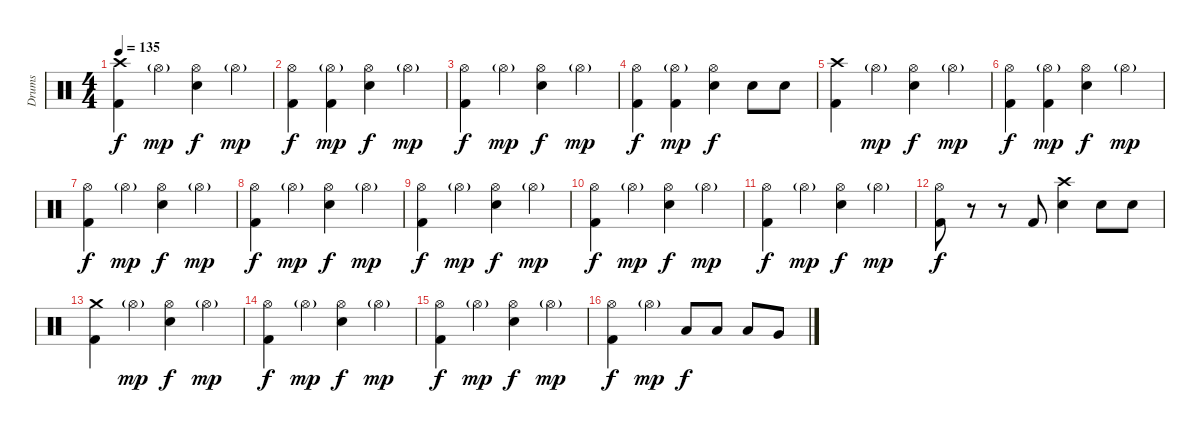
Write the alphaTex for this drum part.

\track ("Drums" "Drums") {instrument percussion}
\staff {score}
\articulation defaults
\ts (4 4)
\tempo 135
\clef neutral
\ks c
("Crash high (hit)" "Kick (hit) 2").4{dy f} "Hi-Hat (open)"{g}.4{dy mp} ("Hi-Hat (open)" "Snare (hit) 2").4{dy f} "Hi-Hat (open)"{g}.4{dy mp} |
("Hi-Hat (open)" "Kick (hit) 2").4{dy f} ("Hi-Hat (open)"{g} "Kick (hit) 2").4{dy mp} ("Hi-Hat (open)" "Snare (hit) 2").4{dy f} "Hi-Hat (open)"{g}.4{dy mp} |
("Hi-Hat (open)" "Kick (hit) 2").4{dy f} "Hi-Hat (open)"{g}.4{dy mp} ("Hi-Hat (open)" "Snare (hit) 2").4{dy f} "Hi-Hat (open)"{g}.4{dy mp} |
("Hi-Hat (open)" "Kick (hit) 2").4{dy f} ("Hi-Hat (open)"{g} "Kick (hit) 2").4{dy mp} ("Hi-Hat (open)" "Snare (hit) 2").4{dy f} "Snare (hit) 2".8 "Snare (hit) 2".8 |
("Crash high (hit)" "Kick (hit) 2").4 "Hi-Hat (open)"{g}.4{dy mp} ("Hi-Hat (open)" "Snare (hit) 2").4{dy f} "Hi-Hat (open)"{g}.4{dy mp} |
("Hi-Hat (open)" "Kick (hit) 2").4{dy f} ("Hi-Hat (open)"{g} "Kick (hit) 2").4{dy mp} ("Hi-Hat (open)" "Snare (hit) 2").4{dy f} "Hi-Hat (open)"{g}.4{dy mp} |
("Hi-Hat (open)" "Kick (hit) 2").4{dy f} "Hi-Hat (open)"{g}.4{dy mp} ("Hi-Hat (open)" "Snare (hit) 2").4{dy f} "Hi-Hat (open)"{g}.4{dy mp} |
("Hi-Hat (open)" "Kick (hit) 2").4{dy f} "Hi-Hat (open)"{g}.4{dy mp} ("Hi-Hat (open)" "Snare (hit) 2").4{dy f} "Hi-Hat (open)"{g}.4{dy mp} |
("Hi-Hat (open)" "Kick (hit) 2").4{dy f} "Hi-Hat (open)"{g}.4{dy mp} ("Hi-Hat (open)" "Snare (hit) 2").4{dy f} "Hi-Hat (open)"{g}.4{dy mp} |
("Hi-Hat (open)" "Kick (hit) 2").4{dy f} "Hi-Hat (open)"{g}.4{dy mp} ("Hi-Hat (open)" "Snare (hit) 2").4{dy f} "Hi-Hat (open)"{g}.4{dy mp} |
("Hi-Hat (open)" "Kick (hit) 2").4{dy f} "Hi-Hat (open)"{g}.4{dy mp} ("Hi-Hat (open)" "Snare (hit) 2").4{dy f} "Hi-Hat (open)"{g}.4{dy mp} |
("Hi-Hat (open)" "Kick (hit) 2").8{dy f} r.8 r.8 "Kick (hit) 2".8 ("Crash high (hit)" "Snare (hit) 2").4 "Snare (hit) 2".8 "Snare (hit) 2".8 |
("Crash medium (hit)" "Kick (hit) 2").4 "Hi-Hat (open)"{g}.4{dy mp} ("Hi-Hat (open)" "Snare (hit) 2").4{dy f} "Hi-Hat (open)"{g}.4{dy mp} |
("Hi-Hat (open)" "Kick (hit) 2").4{dy f} "Hi-Hat (open)"{g}.4{dy mp} ("Hi-Hat (open)" "Snare (hit) 2").4{dy f} "Hi-Hat (open)"{g}.4{dy mp} |
("Hi-Hat (open)" "Kick (hit) 2").4{dy f} "Hi-Hat (open)"{g}.4{dy mp} ("Hi-Hat (open)" "Snare (hit) 2").4{dy f} "Hi-Hat (open)"{g}.4{dy mp} |
("Hi-Hat (open)" "Kick (hit) 2").4{dy f} "Hi-Hat (open)"{g}.4{dy mp} "Low Tom (hit)".8{dy f} "Low Tom (hit)".8 "Low Tom (hit)".8 "Very Low Tom (hit)".8
